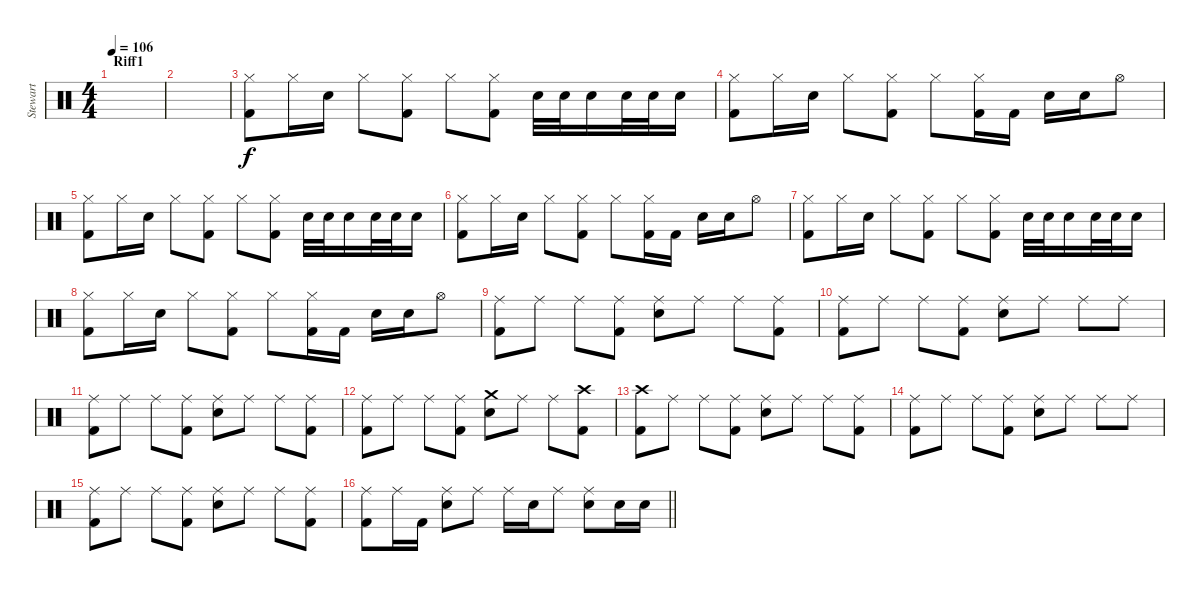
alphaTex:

\track ("Stewart" "Stewart") {instrument percussion}
\staff {score}
\articulation defaults
\ts (4 4)
\section ("" "Riff1")
\tempo 106
\clef neutral
\ks c
|
|
("Hi-Hat (closed)" "Kick (hit) 2").8 "Hi-Hat (closed)".16 "Electric Snare (hit)".16 "Hi-Hat (closed)".8 ("Hi-Hat (closed)" "Kick (hit) 2").8 "Hi-Hat (closed)".8 ("Hi-Hat (closed)" "Kick (hit) 2").8 "Electric Snare (hit)".32 "Electric Snare (hit)".32 "Electric Snare (hit)".16 "Electric Snare (hit)".32 "Electric Snare (hit)".32 "Electric Snare (hit)".16 |
("Hi-Hat (closed)" "Kick (hit) 2").8 "Hi-Hat (closed)".16 "Electric Snare (hit)".16 "Hi-Hat (closed)".8 ("Hi-Hat (closed)" "Kick (hit) 2").8 "Hi-Hat (closed)".8 ("Hi-Hat (closed)" "Kick (hit) 2").16 "Kick (hit) 2".16 "Electric Snare (hit)".16 "Electric Snare (hit)".16 "Hi-Hat (open)".8 |
("Hi-Hat (closed)" "Kick (hit) 2").8 "Hi-Hat (closed)".16 "Electric Snare (hit)".16 "Hi-Hat (closed)".8 ("Hi-Hat (closed)" "Kick (hit) 2").8 "Hi-Hat (closed)".8 ("Hi-Hat (closed)" "Kick (hit) 2").8 "Electric Snare (hit)".32 "Electric Snare (hit)".32 "Electric Snare (hit)".16 "Electric Snare (hit)".32 "Electric Snare (hit)".32 "Electric Snare (hit)".16 |
("Hi-Hat (closed)" "Kick (hit) 2").8 "Hi-Hat (closed)".16 "Electric Snare (hit)".16 "Hi-Hat (closed)".8 ("Hi-Hat (closed)" "Kick (hit) 2").8 "Hi-Hat (closed)".8 ("Hi-Hat (closed)" "Kick (hit) 2").16 "Kick (hit) 2".16 "Electric Snare (hit)".16 "Electric Snare (hit)".16 "Hi-Hat (open)".8 |
("Hi-Hat (closed)" "Kick (hit) 2").8 "Hi-Hat (closed)".16 "Electric Snare (hit)".16 "Hi-Hat (closed)".8 ("Hi-Hat (closed)" "Kick (hit) 2").8 "Hi-Hat (closed)".8 ("Hi-Hat (closed)" "Kick (hit) 2").8 "Electric Snare (hit)".32 "Electric Snare (hit)".32 "Electric Snare (hit)".16 "Electric Snare (hit)".32 "Electric Snare (hit)".32 "Electric Snare (hit)".16 |
("Hi-Hat (closed)" "Kick (hit) 2").8 "Hi-Hat (closed)".16 "Electric Snare (hit)".16 "Hi-Hat (closed)".8 ("Hi-Hat (closed)" "Kick (hit) 2").8 "Hi-Hat (closed)".8 ("Hi-Hat (closed)" "Kick (hit) 2").16 "Kick (hit) 2".16 "Electric Snare (hit)".16 "Electric Snare (hit)".16 "Hi-Hat (open)".8 |
("Ride (middle)" "Kick (hit) 2").8 "Ride (middle)".8 "Ride (middle)".8 ("Ride (middle)" "Kick (hit) 2").8 ("Ride (middle)" "Electric Snare (hit)").8 "Ride (middle)".8 "Ride (middle)".8 ("Ride (middle)" "Kick (hit) 2").8 |
("Ride (middle)" "Kick (hit) 2").8 "Ride (middle)".8 "Ride (middle)".8 ("Ride (middle)" "Kick (hit) 2").8 ("Ride (middle)" "Electric Snare (hit)").8 "Ride (middle)".8 "Ride (middle)".8 "Ride (middle)".8 |
("Ride (middle)" "Kick (hit) 2").8 "Ride (middle)".8 "Ride (middle)".8 ("Ride (middle)" "Kick (hit) 2").8 ("Ride (middle)" "Electric Snare (hit)").8 "Ride (middle)".8 "Ride (middle)".8 ("Ride (middle)" "Kick (hit) 2").8 |
("Ride (middle)" "Kick (hit) 2").8 "Ride (middle)".8 "Ride (middle)".8 ("Ride (middle)" "Kick (hit) 2").8 ("Crash medium (hit)" "Electric Snare (hit)").8 "Ride (middle)".8 "Ride (middle)".8 ("Crash high (hit)" "Kick (hit) 2").8 |
("Crash high (hit)" "Kick (hit) 2").8 "Ride (middle)".8 "Ride (middle)".8 ("Ride (middle)" "Kick (hit) 2").8 ("Ride (middle)" "Electric Snare (hit)").8 "Ride (middle)".8 "Ride (middle)".8 ("Ride (middle)" "Kick (hit) 2").8 |
("Ride (middle)" "Kick (hit) 2").8 "Ride (middle)".8 "Ride (middle)".8 ("Ride (middle)" "Kick (hit) 2").8 ("Ride (middle)" "Electric Snare (hit)").8 "Ride (middle)".8 "Ride (middle)".8 "Ride (middle)".8 |
("Ride (middle)" "Kick (hit) 2").8 "Ride (middle)".8 "Ride (middle)".8 ("Ride (middle)" "Kick (hit) 2").8 ("Ride (middle)" "Electric Snare (hit)").8 "Ride (middle)".8 "Ride (middle)".8 ("Ride (middle)" "Kick (hit) 2").8 |
\barLineRight lightlight
("Ride (middle)" "Kick (hit) 2").8 "Ride (middle)".16 "Kick (hit) 2".16 ("Ride (middle)" "Electric Snare (hit)").8 "Ride (middle)".8 "Ride (middle)".16 "Electric Snare (hit)".16 "Ride (middle)".8 ("Ride (middle)" "Electric Snare (hit)").8 "Electric Snare (hit)".16 "Electric Snare (hit)".16
